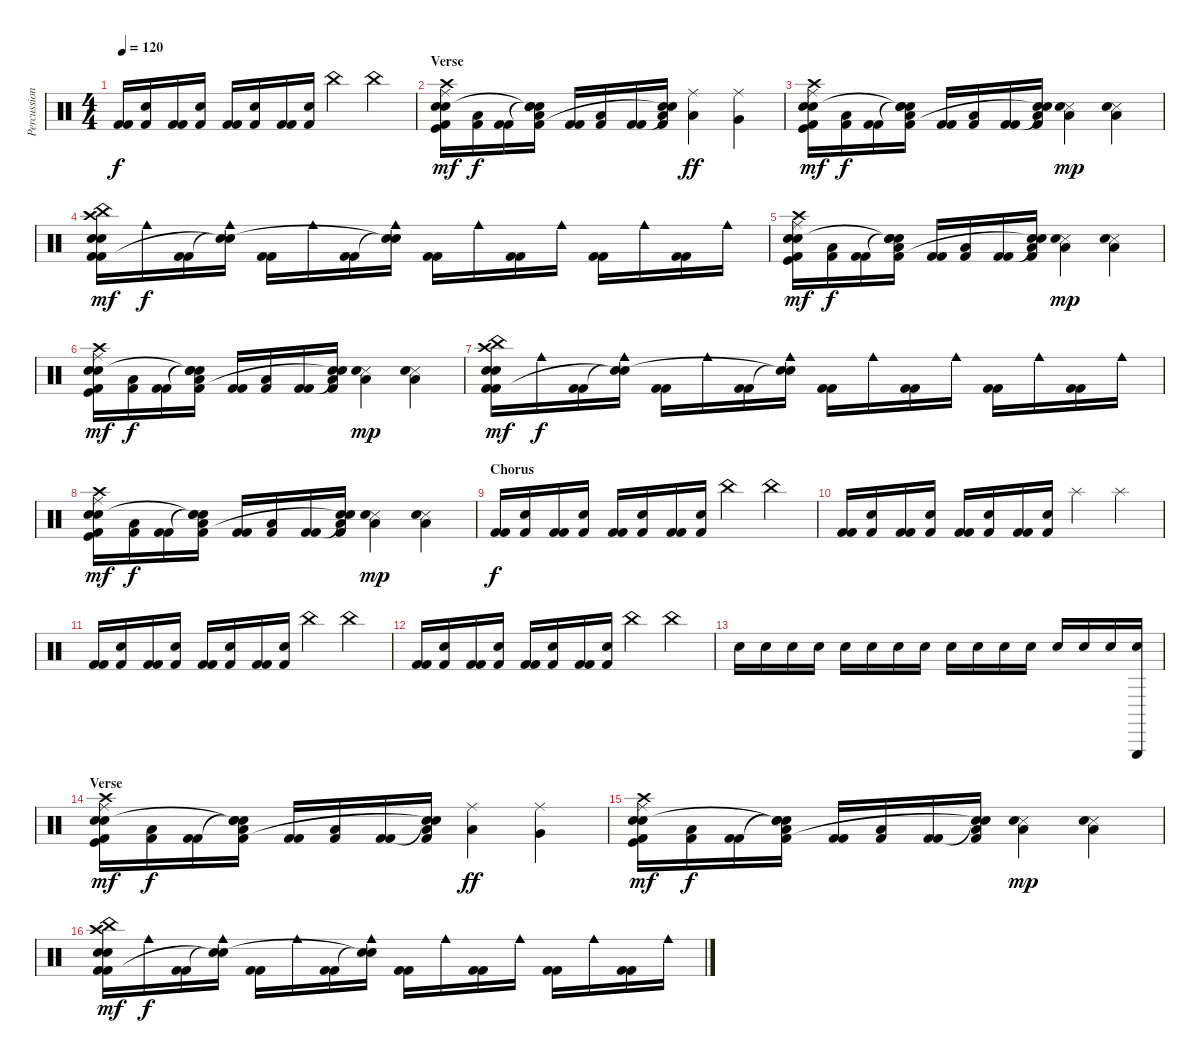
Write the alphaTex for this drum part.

\track ("Percussions" "Percussion") {instrument percussion}
\staff {score}
\articulation defaults
\ts (4 4)
\tempo 120
\clef neutral
\ks c
("Kick (hit) 2" "Kick (hit) 2").16{dy f} ("Snare (hit) 2" "Kick (hit) 2").16 ("Kick (hit) 2" "Kick (hit) 2").16 ("Snare (hit) 2" "Kick (hit) 2").16 ("Kick (hit) 2" "Kick (hit) 2").16 ("Snare (hit) 2" "Kick (hit) 2").16 ("Kick (hit) 2" "Kick (hit) 2").16 ("Snare (hit) 2" "Kick (hit) 2").16 "China (hit)".4 "China (hit)".4 |
\section ("" "Verse")
("Crash high (hit)" "Electric Snare (hit)" "Kick (hit)" "Kick (hit) 2" "Electric Snare (hit)" "Ride (middle)").16{dy mf} ("Low Floor Tom (hit)" "Kick (hit) 2").16{dy f} ("Kick (hit) 2" "Kick (hit) 2").16 ("Snare (hit)"{t} "Snare (hit)"{t} "Low Floor Tom (hit)" "Kick (hit) 2" "Snare (hit)"{t}).16 ("Kick (hit) 2" "Kick (hit) 2").16 ("Low Floor Tom (hit)" "Kick (hit) 2").16 ("Kick (hit) 2" "Kick (hit) 2").16 ("Snare (hit)"{t} "Low Floor Tom (hit)" "Kick (hit) 2" "Snare (hit)"{t}).16 ("Ride (middle)" "Low Tom (hit)").4{dy ff} ("Ride (middle)" "Very Low Tom (hit)").4 |
("Crash high (hit)" "Electric Snare (hit)" "Kick (hit)" "Kick (hit) 2" "Electric Snare (hit)" "Ride (middle)").16{dy mf} ("Low Floor Tom (hit)" "Kick (hit) 2").16{dy f} ("Kick (hit) 2" "Kick (hit) 2").16 ("Snare (hit)"{t} "Snare (hit)"{t} "Low Floor Tom (hit)" "Kick (hit) 2" "Snare (hit)"{t}).16 ("Kick (hit) 2" "Kick (hit) 2").16 ("Low Floor Tom (hit)" "Kick (hit) 2").16 ("Kick (hit) 2" "Kick (hit) 2").16 ("Snare (hit)"{t} "Low Floor Tom (hit)" "Kick (hit) 2" "Snare (hit)"{t}).16 ("Snare (side stick) 3" "Snare (hit) 2" "Low Floor Tom (hit)").4{dy mp} ("Snare (side stick) 3" "Snare (hit) 2" "Low Floor Tom (hit)").4 |
("Crash high (hit)" "Electric Snare (hit)" "Kick (hit) 2" "Kick (hit) 2" "Electric Snare (hit)" "China (hit)").16{dy mf} "Cowbell medium (hit)".16{dy f} ("Kick (hit) 2" "Kick (hit) 2").16 ("Snare (hit)"{t} "Cowbell medium (hit)" "Snare (hit)"{t}).16 ("Kick (hit) 2" "Kick (hit) 2").16 "Cowbell medium (hit)".16 ("Kick (hit) 2" "Kick (hit) 2").16 ("Snare (hit)"{t} "Cowbell medium (hit)" "Snare (hit)"{t}).16 ("Kick (hit) 2" "Kick (hit) 2").16 "Cowbell medium (hit)".16 ("Kick (hit) 2" "Kick (hit) 2").16 "Cowbell medium (hit)".16 ("Kick (hit) 2" "Kick (hit) 2").16 "Cowbell medium (hit)".16 ("Kick (hit) 2" "Kick (hit) 2").16 "Cowbell medium (hit)".16 |
("Crash high (hit)" "Electric Snare (hit)" "Kick (hit)" "Kick (hit) 2" "Electric Snare (hit)" "Ride (middle)").16{dy mf} ("Low Floor Tom (hit)" "Kick (hit) 2").16{dy f} ("Kick (hit) 2" "Kick (hit) 2").16 ("Snare (hit)"{t} "Snare (hit)"{t} "Low Floor Tom (hit)" "Kick (hit) 2" "Snare (hit)"{t}).16 ("Kick (hit) 2" "Kick (hit) 2").16 ("Low Floor Tom (hit)" "Kick (hit) 2").16 ("Kick (hit) 2" "Kick (hit) 2").16 ("Snare (hit)"{t} "Low Floor Tom (hit)" "Kick (hit) 2" "Snare (hit)"{t}).16 ("Snare (side stick) 3" "Snare (hit) 2" "Low Floor Tom (hit)").4{dy mp} ("Snare (side stick) 3" "Snare (hit) 2" "Low Floor Tom (hit)").4 |
("Crash high (hit)" "Electric Snare (hit)" "Kick (hit)" "Kick (hit) 2" "Electric Snare (hit)" "Ride (middle)").16{dy mf} ("Low Floor Tom (hit)" "Kick (hit) 2").16{dy f} ("Kick (hit) 2" "Kick (hit) 2").16 ("Snare (hit)"{t} "Snare (hit)"{t} "Low Floor Tom (hit)" "Kick (hit) 2" "Snare (hit)"{t}).16 ("Kick (hit) 2" "Kick (hit) 2").16 ("Low Floor Tom (hit)" "Kick (hit) 2").16 ("Kick (hit) 2" "Kick (hit) 2").16 ("Snare (hit)"{t} "Low Floor Tom (hit)" "Kick (hit) 2" "Snare (hit)"{t}).16 ("Snare (side stick) 3" "Snare (hit) 2" "Low Floor Tom (hit)").4{dy mp} ("Snare (side stick) 3" "Snare (hit) 2" "Low Floor Tom (hit)").4 |
("Crash high (hit)" "Electric Snare (hit)" "Kick (hit) 2" "Kick (hit) 2" "Electric Snare (hit)" "China (hit)").16{dy mf} "Cowbell medium (hit)".16{dy f} ("Kick (hit) 2" "Kick (hit) 2").16 ("Snare (hit)"{t} "Cowbell medium (hit)" "Snare (hit)"{t}).16 ("Kick (hit) 2" "Kick (hit) 2").16 "Cowbell medium (hit)".16 ("Kick (hit) 2" "Kick (hit) 2").16 ("Snare (hit)"{t} "Cowbell medium (hit)" "Snare (hit)"{t}).16 ("Kick (hit) 2" "Kick (hit) 2").16 "Cowbell medium (hit)".16 ("Kick (hit) 2" "Kick (hit) 2").16 "Cowbell medium (hit)".16 ("Kick (hit) 2" "Kick (hit) 2").16 "Cowbell medium (hit)".16 ("Kick (hit) 2" "Kick (hit) 2").16 "Cowbell medium (hit)".16 |
("Crash high (hit)" "Electric Snare (hit)" "Kick (hit)" "Kick (hit) 2" "Electric Snare (hit)" "Ride (middle)").16{dy mf} ("Low Floor Tom (hit)" "Kick (hit) 2").16{dy f} ("Kick (hit) 2" "Kick (hit) 2").16 ("Snare (hit)"{t} "Snare (hit)"{t} "Low Floor Tom (hit)" "Kick (hit) 2" "Snare (hit)"{t}).16 ("Kick (hit) 2" "Kick (hit) 2").16 ("Low Floor Tom (hit)" "Kick (hit) 2").16 ("Kick (hit) 2" "Kick (hit) 2").16 ("Snare (hit)"{t} "Low Floor Tom (hit)" "Kick (hit) 2" "Snare (hit)"{t}).16 ("Snare (side stick) 3" "Snare (hit) 2" "Low Floor Tom (hit)").4{dy mp} ("Snare (side stick) 3" "Snare (hit) 2" "Low Floor Tom (hit)").4 |
\section ("" "Chorus")
("Kick (hit) 2" "Kick (hit) 2").16{dy f} ("Snare (hit) 2" "Kick (hit) 2").16 ("Kick (hit) 2" "Kick (hit) 2").16 ("Snare (hit) 2" "Kick (hit) 2").16 ("Kick (hit) 2" "Kick (hit) 2").16 ("Snare (hit) 2" "Kick (hit) 2").16 ("Kick (hit) 2" "Kick (hit) 2").16 ("Snare (hit) 2" "Kick (hit) 2").16 "China (hit)".4 "China (hit)".4 |
("Kick (hit) 2" "Kick (hit) 2").16 ("Snare (hit) 2" "Kick (hit) 2").16 ("Kick (hit) 2" "Kick (hit) 2").16 ("Snare (hit) 2" "Kick (hit) 2").16 ("Kick (hit) 2" "Kick (hit) 2").16 ("Snare (hit) 2" "Kick (hit) 2").16 ("Kick (hit) 2" "Kick (hit) 2").16 ("Snare (hit) 2" "Kick (hit) 2").16 "Splash (hit)".4 "Splash (hit)".4 |
("Kick (hit) 2" "Kick (hit) 2").16 ("Snare (hit) 2" "Kick (hit) 2").16 ("Kick (hit) 2" "Kick (hit) 2").16 ("Snare (hit) 2" "Kick (hit) 2").16 ("Kick (hit) 2" "Kick (hit) 2").16 ("Snare (hit) 2" "Kick (hit) 2").16 ("Kick (hit) 2" "Kick (hit) 2").16 ("Snare (hit) 2" "Kick (hit) 2").16 "China (hit)".4 "China (hit)".4 |
("Kick (hit) 2" "Kick (hit) 2").16 ("Snare (hit) 2" "Kick (hit) 2").16 ("Kick (hit) 2" "Kick (hit) 2").16 ("Snare (hit) 2" "Kick (hit) 2").16 ("Kick (hit) 2" "Kick (hit) 2").16 ("Snare (hit) 2" "Kick (hit) 2").16 ("Kick (hit) 2" "Kick (hit) 2").16 ("Snare (hit) 2" "Kick (hit) 2").16 "China (hit)".4 "China (hit)".4 |
"Electric Snare (hit)".16 "Electric Snare (hit)".16 "Electric Snare (hit)".16 "Electric Snare (hit)".16 "Electric Snare (hit)".16 "Electric Snare (hit)".16 "Electric Snare (hit)".16 "Electric Snare (hit)".16 "Snare (hit) 2".16 "Snare (hit) 2".16 "Snare (hit) 2".16 "Snare (hit) 2".16 "Snare (hit) 2".16 "Snare (hit) 2".16 "Snare (hit) 2".16 ("Triangle (hit)" "Snare (hit) 2").16 |
\section ("" "Verse")
("Crash high (hit)" "Electric Snare (hit)" "Kick (hit)" "Kick (hit) 2" "Electric Snare (hit)" "Ride (middle)").16{dy mf} ("Low Floor Tom (hit)" "Kick (hit) 2").16{dy f} ("Kick (hit) 2" "Kick (hit) 2").16 ("Snare (hit)"{t} "Snare (hit)"{t} "Low Floor Tom (hit)" "Kick (hit) 2" "Snare (hit)"{t}).16 ("Kick (hit) 2" "Kick (hit) 2").16 ("Low Floor Tom (hit)" "Kick (hit) 2").16 ("Kick (hit) 2" "Kick (hit) 2").16 ("Snare (hit)"{t} "Low Floor Tom (hit)" "Kick (hit) 2" "Snare (hit)"{t}).16 ("Ride (middle)" "Low Tom (hit)").4{dy ff} ("Ride (middle)" "Very Low Tom (hit)").4 |
("Crash high (hit)" "Electric Snare (hit)" "Kick (hit)" "Kick (hit) 2" "Electric Snare (hit)" "Ride (middle)").16{dy mf} ("Low Floor Tom (hit)" "Kick (hit) 2").16{dy f} ("Kick (hit) 2" "Kick (hit) 2").16 ("Snare (hit)"{t} "Snare (hit)"{t} "Low Floor Tom (hit)" "Kick (hit) 2" "Snare (hit)"{t}).16 ("Kick (hit) 2" "Kick (hit) 2").16 ("Low Floor Tom (hit)" "Kick (hit) 2").16 ("Kick (hit) 2" "Kick (hit) 2").16 ("Snare (hit)"{t} "Low Floor Tom (hit)" "Kick (hit) 2" "Snare (hit)"{t}).16 ("Snare (side stick) 3" "Snare (hit) 2" "Low Floor Tom (hit)").4{dy mp} ("Snare (side stick) 3" "Snare (hit) 2" "Low Floor Tom (hit)").4 |
("Crash high (hit)" "Electric Snare (hit)" "Kick (hit) 2" "Kick (hit) 2" "Electric Snare (hit)" "China (hit)").16{dy mf} "Cowbell medium (hit)".16{dy f} ("Kick (hit) 2" "Kick (hit) 2").16 ("Snare (hit)"{t} "Cowbell medium (hit)" "Snare (hit)"{t}).16 ("Kick (hit) 2" "Kick (hit) 2").16 "Cowbell medium (hit)".16 ("Kick (hit) 2" "Kick (hit) 2").16 ("Snare (hit)"{t} "Cowbell medium (hit)" "Snare (hit)"{t}).16 ("Kick (hit) 2" "Kick (hit) 2").16 "Cowbell medium (hit)".16 ("Kick (hit) 2" "Kick (hit) 2").16 "Cowbell medium (hit)".16 ("Kick (hit) 2" "Kick (hit) 2").16 "Cowbell medium (hit)".16 ("Kick (hit) 2" "Kick (hit) 2").16 "Cowbell medium (hit)".16
